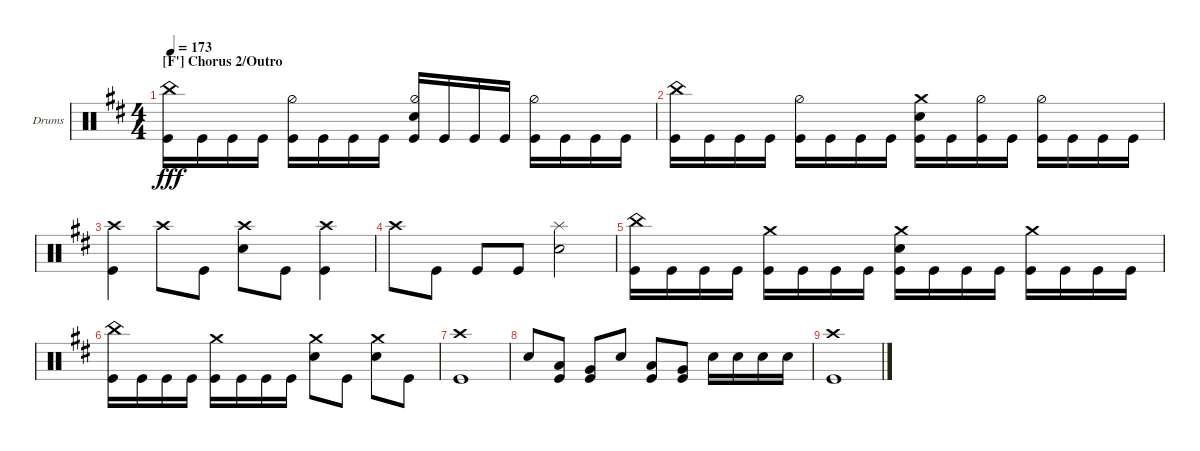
\defaultSystemsLayout 4
\bracketExtendMode groupsimilarinstruments
\firstSystemTrackNameOrientation horizontal
\otherSystemsTrackNameOrientation horizontal
\track ("Drumkit" "Drums") {instrument percussion}
\staff {score}
\articulation defaults
\ts (4 4)
\section ("F'" "Chorus 2/Outro")
\tempo 173
\clef neutral
\ks bminor
("Kick (hit)" "China (hit)").16{dy fff} "Kick (hit)".16 "Kick (hit)".16 "Kick (hit)".16 ("Kick (hit)" "Hi-Hat (half)").16 "Kick (hit)".16 "Kick (hit)".16 "Kick (hit)".16 ("Kick (hit)" "Snare (hit) 2" "Hi-Hat (half)").16 "Kick (hit)".16 "Kick (hit)".16 "Kick (hit)".16 ("Kick (hit)" "Hi-Hat (half)").16 "Kick (hit)".16 "Kick (hit)".16 "Kick (hit)".16 |
("Kick (hit)" "China (hit)").16 "Kick (hit)".16 "Kick (hit)".16 "Kick (hit)".16 ("Kick (hit)" "Hi-Hat (half)").16 "Kick (hit)".16 "Kick (hit)".16 "Kick (hit)".16 ("Kick (hit)" "Crash medium (hit)" "Snare (hit) 2").16 "Kick (hit)".16 ("Kick (hit)" "Hi-Hat (half)").16 "Kick (hit)".16 ("Kick (hit)" "Hi-Hat (half)").16 "Kick (hit)".16 "Kick (hit)".16 "Kick (hit)".16 |
("Kick (hit)" "Crash high (hit)").4 "Crash high (hit)".8 "Kick (hit)".8 ("Crash high (hit)" "Snare (hit) 2").8 "Kick (hit)".8 ("Crash high (hit)" "Kick (hit)").4 |
"Crash high (hit)".8 "Kick (hit)".8 "Kick (hit)".8 "Kick (hit)".8 ("Snare (hit) 2" "Splash (hit)").2 |
("Kick (hit)" "China (hit)").16 "Kick (hit)".16 "Kick (hit)".16 "Kick (hit)".16 ("Kick (hit)" "Crash medium (hit)").16 "Kick (hit)".16 "Kick (hit)".16 "Kick (hit)".16 ("Kick (hit)" "Crash medium (hit)" "Snare (hit) 2").16 "Kick (hit)".16 "Kick (hit)".16 "Kick (hit)".16 ("Kick (hit)" "Crash medium (hit)").16 "Kick (hit)".16 "Kick (hit)".16 "Kick (hit)".16 |
("Kick (hit)" "China (hit)").16 "Kick (hit)".16 "Kick (hit)".16 "Kick (hit)".16 ("Kick (hit)" "Crash medium (hit)").16 "Kick (hit)".16 "Kick (hit)".16 "Kick (hit)".16 ("Crash medium (hit)" "Snare (hit) 2").8 "Kick (hit)".8 ("Crash medium (hit)" "Snare (hit) 2").8 "Kick (hit)".8 |
("Kick (hit)" "Crash high (hit)").1 |
"Snare (hit) 2".8 ("Low Tom (hit)" "Kick (hit)").8 ("Very Low Tom (hit)" "Kick (hit)").8 "Snare (hit) 2".8 ("Low Tom (hit)" "Kick (hit)").8 ("Very Low Tom (hit)" "Kick (hit)").8 "Snare (hit) 2".16 "Snare (hit) 2".16 "Snare (hit) 2".16 "Snare (hit) 2".16 |
("Kick (hit)" "Crash high (hit)").1
